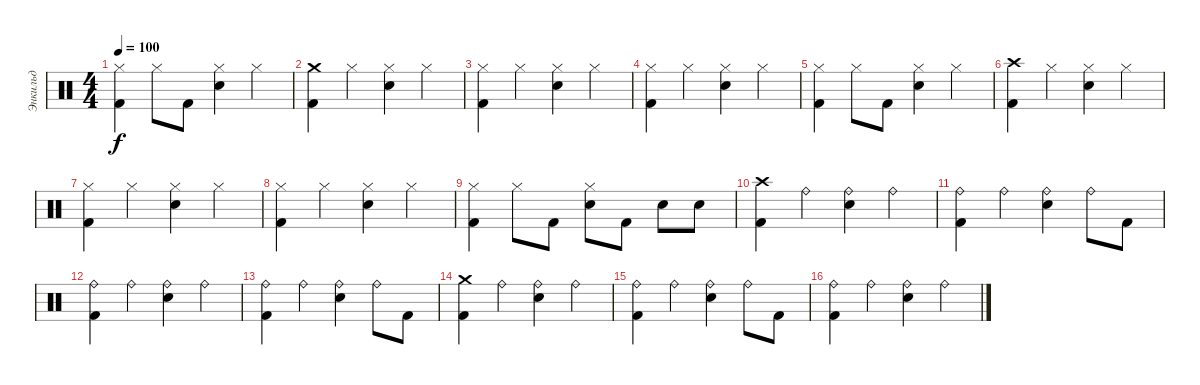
\track ("Энкильд" "Энкильд") {instrument percussion}
\staff {score}
\articulation defaults
\ts (4 4)
\tempo 100
\clef neutral
\ks c
("Kick (hit) 2" "Hi-Hat (closed)").4{dy f} "Hi-Hat (closed)".8 "Kick (hit) 2".8 ("Snare (hit) 2" "Hi-Hat (closed)").4 "Hi-Hat (closed)".4 |
("Kick (hit) 2" "Crash medium (hit)").4 "Hi-Hat (closed)".4 ("Snare (hit) 2" "Hi-Hat (closed)").4 "Hi-Hat (closed)".4 |
("Kick (hit) 2" "Hi-Hat (closed)").4 "Hi-Hat (closed)".4 ("Snare (hit) 2" "Hi-Hat (closed)").4 "Hi-Hat (closed)".4 |
("Kick (hit) 2" "Hi-Hat (closed)").4 "Hi-Hat (closed)".4 ("Snare (hit) 2" "Hi-Hat (closed)").4 "Hi-Hat (closed)".4 |
("Kick (hit) 2" "Hi-Hat (closed)").4 "Hi-Hat (closed)".8 "Kick (hit) 2".8 ("Snare (hit) 2" "Hi-Hat (closed)").4 "Hi-Hat (closed)".4 |
("Kick (hit) 2" "Crash high (hit)").4 "Hi-Hat (closed)".4 ("Snare (hit) 2" "Hi-Hat (closed)").4 "Hi-Hat (closed)".4 |
("Kick (hit) 2" "Hi-Hat (closed)").4 "Hi-Hat (closed)".4 ("Snare (hit) 2" "Hi-Hat (closed)").4 "Hi-Hat (closed)".4 |
("Kick (hit) 2" "Hi-Hat (closed)").4 "Hi-Hat (closed)".4 ("Snare (hit) 2" "Hi-Hat (closed)").4 "Hi-Hat (closed)".4 |
("Kick (hit) 2" "Hi-Hat (closed)").4 "Hi-Hat (closed)".8 "Kick (hit) 2".8 ("Snare (hit) 2" "Hi-Hat (closed)").8 "Kick (hit) 2".8 "Snare (hit) 2".8 "Snare (hit) 2".8 |
("Kick (hit) 2" "Crash high (hit)").4 "Ride (bell)".4 ("Snare (hit) 2" "Ride (bell)").4 "Ride (bell)".4 |
("Ride (bell)" "Kick (hit) 2").4 "Ride (bell)".4 ("Ride (bell)" "Snare (hit) 2").4 "Ride (bell)".8 "Kick (hit) 2".8 |
("Ride (bell)" "Kick (hit) 2").4 "Ride (bell)".4 ("Snare (hit) 2" "Ride (bell)").4 "Ride (bell)".4 |
("Ride (bell)" "Kick (hit) 2").4 "Ride (bell)".4 ("Ride (bell)" "Snare (hit) 2").4 "Ride (bell)".8 "Kick (hit) 2".8 |
("Kick (hit) 2" "Crash medium (hit)").4 "Ride (bell)".4 ("Snare (hit) 2" "Ride (bell)").4 "Ride (bell)".4 |
("Ride (bell)" "Kick (hit) 2").4 "Ride (bell)".4 ("Ride (bell)" "Snare (hit) 2").4 "Ride (bell)".8 "Kick (hit) 2".8 |
("Ride (bell)" "Kick (hit) 2").4 "Ride (bell)".4 ("Snare (hit) 2" "Ride (bell)").4 "Ride (bell)".4
